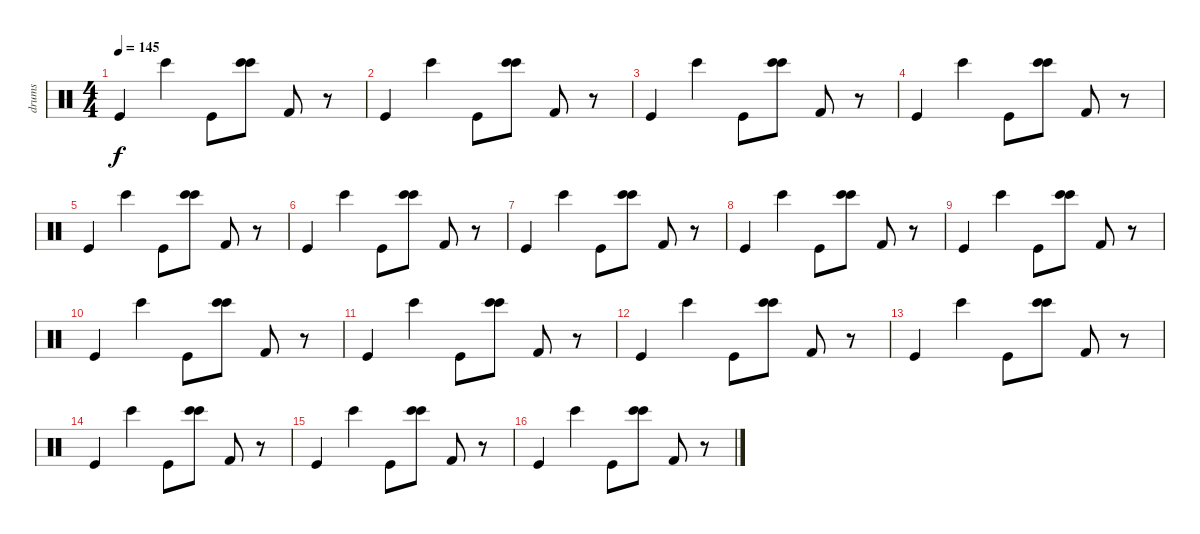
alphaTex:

\track (" drums" " drums") {instrument percussion}
\staff {score}
\articulation defaults
\ts (4 4)
\tempo 145
\clef neutral
\ks c "Kick (hit)".4{dy f} "Bongo High (hit)".4 "Kick (hit)".8
("Bongo High (hit)" "Bongo High (hit)").8 "Kick (hit) 2".8 r.8 |
"Kick (hit)".4 "Bongo High (hit)".4 "Kick (hit)".8 ("Bongo High (hit)" "Bongo High (hit)").8 "Kick (hit) 2".8 r.8 |
"Kick (hit)".4 "Bongo High (hit)".4 "Kick (hit)".8 ("Bongo High (hit)" "Bongo High (hit)").8 "Kick (hit) 2".8 r.8 |
"Kick (hit)".4 "Bongo High (hit)".4 "Kick (hit)".8 ("Bongo High (hit)" "Bongo High (hit)").8 "Kick (hit) 2".8 r.8 |
"Kick (hit)".4 "Bongo High (hit)".4 "Kick (hit)".8 ("Bongo High (hit)" "Bongo High (hit)").8 "Kick (hit) 2".8 r.8 |
"Kick (hit)".4 "Bongo High (hit)".4 "Kick (hit)".8 ("Bongo High (hit)" "Bongo High (hit)").8 "Kick (hit) 2".8 r.8 |
"Kick (hit)".4 "Bongo High (hit)".4 "Kick (hit)".8 ("Bongo High (hit)" "Bongo High (hit)").8 "Kick (hit) 2".8 r.8 |
"Kick (hit)".4 "Bongo High (hit)".4 "Kick (hit)".8 ("Bongo High (hit)" "Bongo High (hit)").8 "Kick (hit) 2".8 r.8 |
"Kick (hit)".4 "Bongo High (hit)".4 "Kick (hit)".8 ("Bongo High (hit)" "Bongo High (hit)").8 "Kick (hit) 2".8 r.8 |
"Kick (hit)".4 "Bongo High (hit)".4 "Kick (hit)".8 ("Bongo High (hit)" "Bongo High (hit)").8 "Kick (hit) 2".8 r.8 |
"Kick (hit)".4 "Bongo High (hit)".4 "Kick (hit)".8 ("Bongo High (hit)" "Bongo High (hit)").8 "Kick (hit) 2".8 r.8 |
"Kick (hit)".4 "Bongo High (hit)".4 "Kick (hit)".8 ("Bongo High (hit)" "Bongo High (hit)").8 "Kick (hit) 2".8 r.8 |
"Kick (hit)".4 "Bongo High (hit)".4 "Kick (hit)".8 ("Bongo High (hit)" "Bongo High (hit)").8 "Kick (hit) 2".8 r.8 |
"Kick (hit)".4 "Bongo High (hit)".4 "Kick (hit)".8 ("Bongo High (hit)" "Bongo High (hit)").8 "Kick (hit) 2".8 r.8 |
"Kick (hit)".4 "Bongo High (hit)".4 "Kick (hit)".8 ("Bongo High (hit)" "Bongo High (hit)").8 "Kick (hit) 2".8 r.8 |
"Kick (hit)".4 "Bongo High (hit)".4 "Kick (hit)".8 ("Bongo High (hit)" "Bongo High (hit)").8 "Kick (hit) 2".8 r.8
